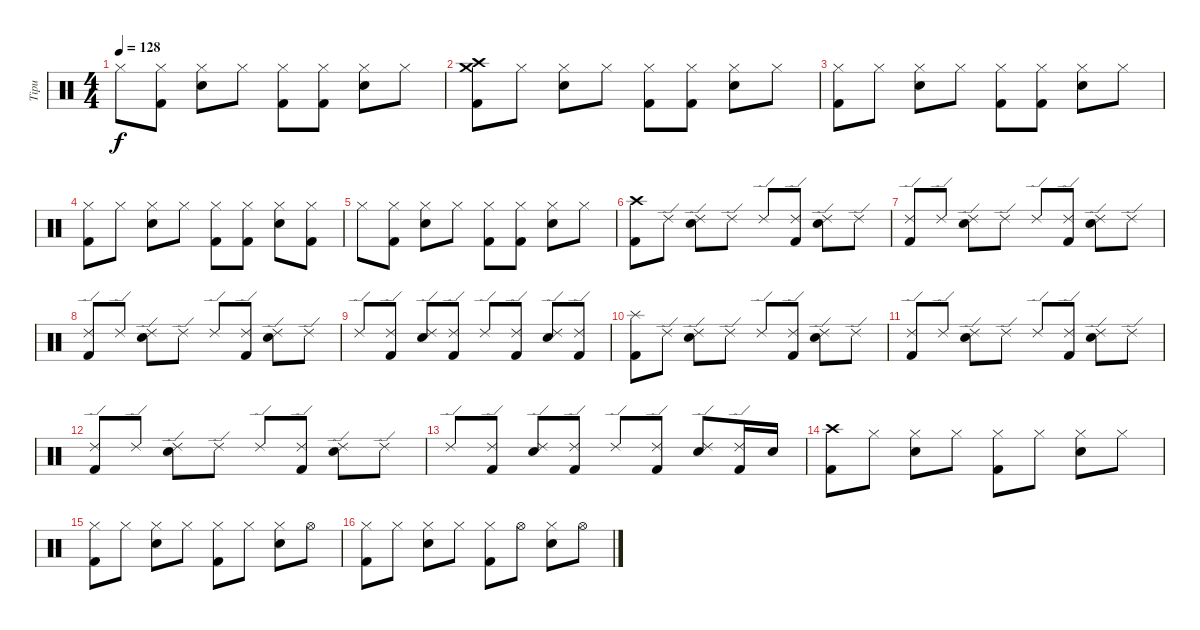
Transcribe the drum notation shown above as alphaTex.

\track ("Tipu" "Tipu") {instrument percussion}
\staff {score}
\articulation defaults
\ts (4 4)
\tempo 128
\clef neutral
\ks c "Hi-Hat (closed)".8{dy f}
("Hi-Hat (closed)" "Kick (hit) 2").8 ("Hi-Hat (closed)" "Electric Snare (hit)").8 "Hi-Hat (closed)".8 ("Hi-Hat (closed)" "Kick (hit) 2").8 ("Hi-Hat (closed)" "Kick (hit) 2").8 ("Hi-Hat (closed)" "Electric Snare (hit)").8 "Hi-Hat (closed)".8 |
("Crash medium (hit)" "Crash high (hit)" "Kick (hit) 2").8 "Hi-Hat (closed)".8 ("Hi-Hat (closed)" "Electric Snare (hit)").8 "Hi-Hat (closed)".8 ("Hi-Hat (closed)" "Kick (hit) 2").8 ("Hi-Hat (closed)" "Kick (hit) 2").8 ("Hi-Hat (closed)" "Electric Snare (hit)").8 "Hi-Hat (closed)".8 |
("Hi-Hat (closed)" "Kick (hit) 2").8 "Hi-Hat (closed)".8 ("Hi-Hat (closed)" "Electric Snare (hit)").8 "Hi-Hat (closed)".8 ("Hi-Hat (closed)" "Kick (hit) 2").8 ("Hi-Hat (closed)" "Kick (hit) 2").8 ("Hi-Hat (closed)" "Electric Snare (hit)").8 "Hi-Hat (closed)".8 |
("Hi-Hat (closed)" "Kick (hit) 2").8 "Hi-Hat (closed)".8 ("Hi-Hat (closed)" "Electric Snare (hit)").8 "Hi-Hat (closed)".8 ("Hi-Hat (closed)" "Kick (hit) 2").8 ("Hi-Hat (closed)" "Kick (hit) 2").8 ("Hi-Hat (closed)" "Electric Snare (hit)").8 ("Hi-Hat (closed)" "Kick (hit) 2").8 |
"Hi-Hat (closed)".8 ("Hi-Hat (closed)" "Kick (hit) 2").8 ("Hi-Hat (closed)" "Electric Snare (hit)").8 "Hi-Hat (closed)".8 ("Hi-Hat (closed)" "Kick (hit) 2").8 ("Hi-Hat (closed)" "Kick (hit) 2").8 ("Hi-Hat (closed)" "Electric Snare (hit)").8 "Hi-Hat (closed)".8 |
("Crash high (hit)" "Kick (hit) 2").8 "Ride (edge) 2".8 ("Ride (edge) 2" "Electric Snare (hit)").8 "Ride (edge) 2".8 "Ride (edge) 2".8 ("Ride (edge) 2" "Kick (hit) 2").8 ("Ride (edge) 2" "Electric Snare (hit)").8 "Ride (edge) 2".8 |
("Ride (edge) 2" "Kick (hit) 2").8 "Ride (edge) 2".8 ("Ride (edge) 2" "Electric Snare (hit)").8 "Ride (edge) 2".8 "Ride (edge) 2".8 ("Ride (edge) 2" "Kick (hit) 2").8 ("Ride (edge) 2" "Electric Snare (hit)").8 "Ride (edge) 2".8 |
("Ride (edge) 2" "Kick (hit) 2").8 "Ride (edge) 2".8 ("Ride (edge) 2" "Electric Snare (hit)").8 "Ride (edge) 2".8 "Ride (edge) 2".8 ("Ride (edge) 2" "Kick (hit) 2").8 ("Ride (edge) 2" "Electric Snare (hit)").8 "Ride (edge) 2".8 |
"Ride (edge) 2".8 ("Ride (edge) 2" "Kick (hit) 2").8 ("Ride (edge) 2" "Electric Snare (hit)").8 ("Ride (edge) 2" "Kick (hit) 2").8 "Ride (edge) 2".8 ("Ride (edge) 2" "Kick (hit) 2").8 ("Ride (edge) 2" "Electric Snare (hit)").8 ("Ride (edge) 2" "Kick (hit) 2").8 |
("Splash (hit)" "Kick (hit) 2").8 "Ride (edge) 2".8 ("Ride (edge) 2" "Electric Snare (hit)").8 "Ride (edge) 2".8 "Ride (edge) 2".8 ("Ride (edge) 2" "Kick (hit) 2").8 ("Ride (edge) 2" "Electric Snare (hit)").8 "Ride (edge) 2".8 |
("Ride (edge) 2" "Kick (hit) 2").8 "Ride (edge) 2".8 ("Ride (edge) 2" "Electric Snare (hit)").8 "Ride (edge) 2".8 "Ride (edge) 2".8 ("Ride (edge) 2" "Kick (hit) 2").8 ("Ride (edge) 2" "Electric Snare (hit)").8 "Ride (edge) 2".8 |
("Ride (edge) 2" "Kick (hit) 2").8 "Ride (edge) 2".8 ("Ride (edge) 2" "Electric Snare (hit)").8 "Ride (edge) 2".8 "Ride (edge) 2".8 ("Ride (edge) 2" "Kick (hit) 2").8 ("Ride (edge) 2" "Electric Snare (hit)").8 "Ride (edge) 2".8 |
"Ride (edge) 2".8 ("Ride (edge) 2" "Kick (hit) 2").8 ("Ride (edge) 2" "Electric Snare (hit)").8 ("Ride (edge) 2" "Kick (hit) 2").8 "Ride (edge) 2".8 ("Ride (edge) 2" "Kick (hit) 2").8 ("Ride (edge) 2" "Electric Snare (hit)").8 ("Ride (edge) 2" "Kick (hit) 2").16 "Electric Snare (hit)".16 |
("Crash high (hit)" "Kick (hit) 2").8 "Hi-Hat (closed)".8 ("Hi-Hat (closed)" "Electric Snare (hit)").8 "Hi-Hat (closed)".8 ("Hi-Hat (closed)" "Kick (hit) 2").8 "Hi-Hat (closed)".8 ("Hi-Hat (closed)" "Electric Snare (hit)").8 "Hi-Hat (closed)".8 |
("Hi-Hat (closed)" "Kick (hit) 2").8 "Hi-Hat (closed)".8 ("Hi-Hat (closed)" "Electric Snare (hit)").8 "Hi-Hat (closed)".8 ("Hi-Hat (closed)" "Kick (hit) 2").8 "Hi-Hat (closed)".8 ("Hi-Hat (closed)" "Electric Snare (hit)").8 "Hi-Hat (open)".8 |
("Hi-Hat (closed)" "Kick (hit) 2").8 "Hi-Hat (closed)".8 ("Hi-Hat (closed)" "Electric Snare (hit)").8 "Hi-Hat (closed)".8 ("Hi-Hat (closed)" "Kick (hit) 2").8 "Hi-Hat (open)".8 ("Hi-Hat (closed)" "Electric Snare (hit)").8 "Hi-Hat (open)".8
